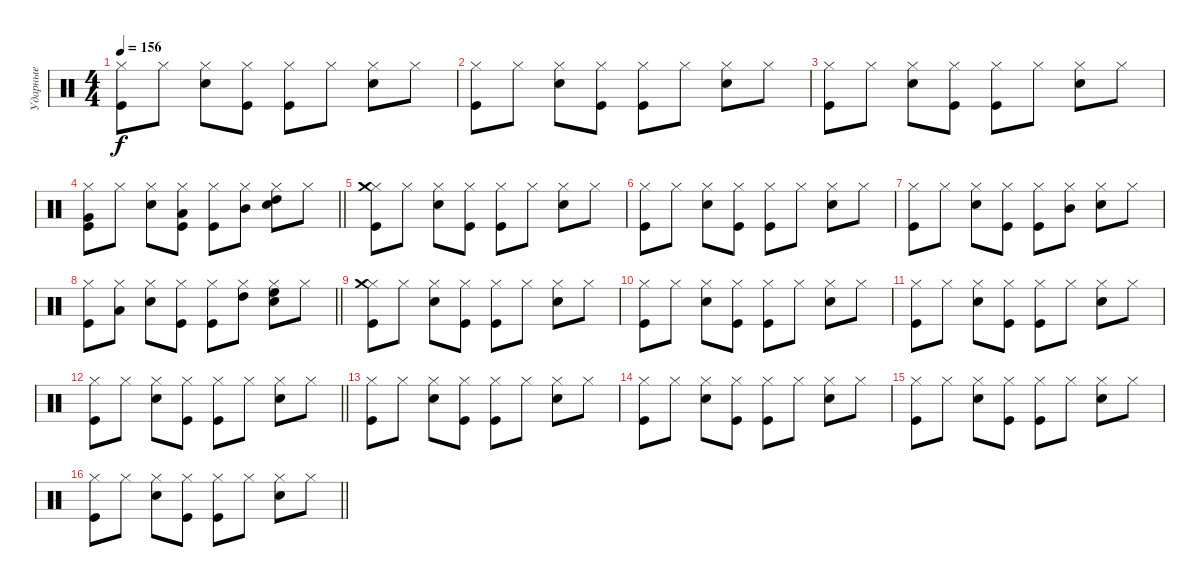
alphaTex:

\track ("Ударные" "Ударные") {instrument percussion}
\staff {score}
\articulation defaults
\ts (4 4)
\tempo 156
\clef neutral
\ks c
("Hi-Hat (closed)" "Kick (hit)").8{dy f} "Hi-Hat (closed)".8 ("Hi-Hat (closed)" "Snare (hit) 2").8 ("Hi-Hat (closed)" "Kick (hit)").8 ("Hi-Hat (closed)" "Kick (hit)").8 "Hi-Hat (closed)".8 ("Hi-Hat (closed)" "Snare (hit) 2").8 "Hi-Hat (closed)".8 |
("Hi-Hat (closed)" "Kick (hit)").8 "Hi-Hat (closed)".8 ("Hi-Hat (closed)" "Snare (hit) 2").8 ("Hi-Hat (closed)" "Kick (hit)").8 ("Hi-Hat (closed)" "Kick (hit)").8 "Hi-Hat (closed)".8 ("Hi-Hat (closed)" "Snare (hit) 2").8 "Hi-Hat (closed)".8 |
("Hi-Hat (closed)" "Kick (hit)").8 "Hi-Hat (closed)".8 ("Hi-Hat (closed)" "Snare (hit) 2").8 ("Hi-Hat (closed)" "Kick (hit)").8 ("Hi-Hat (closed)" "Kick (hit)").8 "Hi-Hat (closed)".8 ("Hi-Hat (closed)" "Snare (hit) 2").8 "Hi-Hat (closed)".8 |
\barLineRight lightlight
("Hi-Hat (closed)" "Kick (hit)" "Very Low Tom (hit)").8 "Hi-Hat (closed)".8 ("Hi-Hat (closed)" "Snare (hit) 2").8 ("Hi-Hat (closed)" "Kick (hit)" "Low Tom (hit)").8 ("Hi-Hat (closed)" "Kick (hit)").8 ("Hi-Hat (closed)" "Mid Tom (hit)").8 ("Hi-Hat (closed)" "Snare (hit) 2" "High Tom (hit)").8 "Hi-Hat (closed)".8 |
("Hi-Hat (closed)" "Kick (hit)" "Crash medium (hit)").8 "Hi-Hat (closed)".8 ("Hi-Hat (closed)" "Snare (hit) 2").8 ("Hi-Hat (closed)" "Kick (hit)").8 ("Hi-Hat (closed)" "Kick (hit)").8 "Hi-Hat (closed)".8 ("Hi-Hat (closed)" "Snare (hit) 2").8 "Hi-Hat (closed)".8 |
("Hi-Hat (closed)" "Kick (hit)").8 "Hi-Hat (closed)".8 ("Hi-Hat (closed)" "Snare (hit) 2").8 ("Hi-Hat (closed)" "Kick (hit)").8 ("Hi-Hat (closed)" "Kick (hit)").8 "Hi-Hat (closed)".8 ("Hi-Hat (closed)" "Snare (hit) 2").8 "Hi-Hat (closed)".8 |
("Hi-Hat (closed)" "Kick (hit)").8 "Hi-Hat (closed)".8 ("Hi-Hat (closed)" "Snare (hit) 2").8 ("Hi-Hat (closed)" "Kick (hit)").8 ("Hi-Hat (closed)" "Kick (hit)").8 ("Hi-Hat (closed)" "Mid Tom (hit)").8 ("Hi-Hat (closed)" "Snare (hit) 2").8 "Hi-Hat (closed)".8 |
\barLineRight lightlight
("Hi-Hat (closed)" "Kick (hit)").8 ("Hi-Hat (closed)" "Low Tom (hit)").8 ("Hi-Hat (closed)" "Snare (hit) 2").8 ("Hi-Hat (closed)" "Kick (hit)").8 ("Hi-Hat (closed)" "Kick (hit)").8 ("Hi-Hat (closed)" "High Tom (hit)").8 ("Hi-Hat (closed)" "Snare (hit) 2" "High Floor Tom (hit)").8 "Hi-Hat (closed)".8 |
("Hi-Hat (closed)" "Kick (hit)" "Crash medium (hit)").8 "Hi-Hat (closed)".8 ("Hi-Hat (closed)" "Snare (hit) 2").8 ("Hi-Hat (closed)" "Kick (hit)").8 ("Hi-Hat (closed)" "Kick (hit)").8 "Hi-Hat (closed)".8 ("Hi-Hat (closed)" "Snare (hit) 2").8 "Hi-Hat (closed)".8 |
("Hi-Hat (closed)" "Kick (hit)").8 "Hi-Hat (closed)".8 ("Hi-Hat (closed)" "Snare (hit) 2").8 ("Hi-Hat (closed)" "Kick (hit)").8 ("Hi-Hat (closed)" "Kick (hit)").8 "Hi-Hat (closed)".8 ("Hi-Hat (closed)" "Snare (hit) 2").8 "Hi-Hat (closed)".8 |
("Hi-Hat (closed)" "Kick (hit)").8 "Hi-Hat (closed)".8 ("Hi-Hat (closed)" "Snare (hit) 2").8 ("Hi-Hat (closed)" "Kick (hit)").8 ("Hi-Hat (closed)" "Kick (hit)").8 "Hi-Hat (closed)".8 ("Hi-Hat (closed)" "Snare (hit) 2").8 "Hi-Hat (closed)".8 |
\barLineRight lightlight
("Hi-Hat (closed)" "Kick (hit)").8 "Hi-Hat (closed)".8 ("Hi-Hat (closed)" "Snare (hit) 2").8 ("Hi-Hat (closed)" "Kick (hit)").8 ("Hi-Hat (closed)" "Kick (hit)").8 "Hi-Hat (closed)".8 ("Hi-Hat (closed)" "Snare (hit) 2").8 "Hi-Hat (closed)".8 |
("Hi-Hat (closed)" "Kick (hit)").8 "Hi-Hat (closed)".8 ("Hi-Hat (closed)" "Snare (hit) 2").8 ("Hi-Hat (closed)" "Kick (hit)").8 ("Hi-Hat (closed)" "Kick (hit)").8 "Hi-Hat (closed)".8 ("Hi-Hat (closed)" "Snare (hit) 2").8 "Hi-Hat (closed)".8 |
("Hi-Hat (closed)" "Kick (hit)").8 "Hi-Hat (closed)".8 ("Hi-Hat (closed)" "Snare (hit) 2").8 ("Hi-Hat (closed)" "Kick (hit)").8 ("Hi-Hat (closed)" "Kick (hit)").8 "Hi-Hat (closed)".8 ("Hi-Hat (closed)" "Snare (hit) 2").8 "Hi-Hat (closed)".8 |
("Hi-Hat (closed)" "Kick (hit)").8 "Hi-Hat (closed)".8 ("Hi-Hat (closed)" "Snare (hit) 2").8 ("Hi-Hat (closed)" "Kick (hit)").8 ("Hi-Hat (closed)" "Kick (hit)").8 "Hi-Hat (closed)".8 ("Hi-Hat (closed)" "Snare (hit) 2").8 "Hi-Hat (closed)".8 |
\barLineRight lightlight
("Hi-Hat (closed)" "Kick (hit)").8 "Hi-Hat (closed)".8 ("Hi-Hat (closed)" "Snare (hit) 2").8 ("Hi-Hat (closed)" "Kick (hit)").8 ("Hi-Hat (closed)" "Kick (hit)").8 "Hi-Hat (closed)".8 ("Hi-Hat (closed)" "Snare (hit) 2").8 "Hi-Hat (closed)".8
